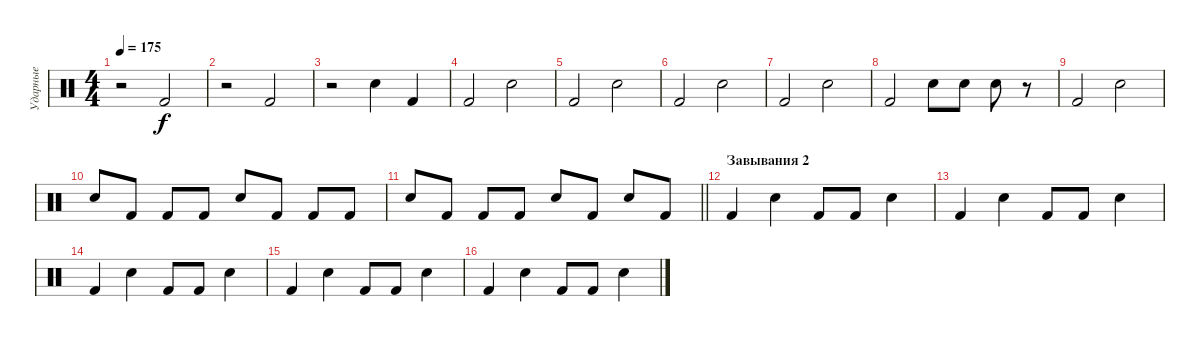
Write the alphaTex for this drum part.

\track ("Ударные" "Ударные") {instrument percussion}
\staff {score}
\articulation defaults
\ts (4 4)
\tempo 175
\clef neutral
\ks c
r.2{dy f} "Kick (hit) 2".2 |
r.2 "Kick (hit) 2".2 |
r.2 "Electric Snare (hit)".4 "Kick (hit) 2".4 |
"Kick (hit) 2".2 "Electric Snare (hit)".2 |
"Kick (hit) 2".2 "Electric Snare (hit)".2 |
"Kick (hit) 2".2 "Electric Snare (hit)".2 |
"Kick (hit) 2".2 "Electric Snare (hit)".2 |
"Kick (hit) 2".2 "Electric Snare (hit)".8 "Electric Snare (hit)".8 "Electric Snare (hit)".8 r.8 |
"Kick (hit) 2".2 "Electric Snare (hit)".2 |
"Electric Snare (hit)".8 "Kick (hit) 2".8 "Kick (hit) 2".8 "Kick (hit) 2".8 "Electric Snare (hit)".8 "Kick (hit) 2".8 "Kick (hit) 2".8 "Kick (hit) 2".8 |
\barLineRight lightlight "Electric Snare (hit)".8 "Kick (hit) 2".8 "Kick (hit) 2".8 "Kick (hit) 2".8 "Electric Snare (hit)".8 "Kick (hit) 2".8 "Electric Snare (hit)".8 "Kick (hit) 2".8
|
\section ("" "Завывания 2")
"Kick (hit) 2".4 "Electric Snare (hit)".4 "Kick (hit) 2".8 "Kick (hit) 2".8 "Electric Snare (hit)".4 |
"Kick (hit) 2".4 "Electric Snare (hit)".4 "Kick (hit) 2".8 "Kick (hit) 2".8 "Electric Snare (hit)".4 |
"Kick (hit) 2".4 "Electric Snare (hit)".4 "Kick (hit) 2".8 "Kick (hit) 2".8 "Electric Snare (hit)".4 |
"Kick (hit) 2".4 "Electric Snare (hit)".4 "Kick (hit) 2".8 "Kick (hit) 2".8 "Electric Snare (hit)".4 |
"Kick (hit) 2".4 "Electric Snare (hit)".4 "Kick (hit) 2".8 "Kick (hit) 2".8 "Electric Snare (hit)".4
